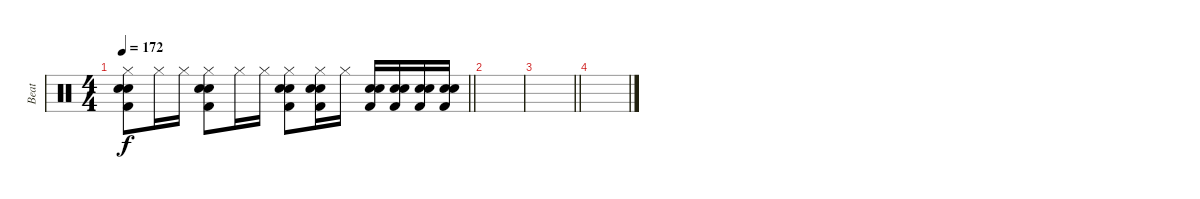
\track ("Beat" "Beat") {instrument percussion}
\staff {score}
\articulation defaults
\ts (4 4)
\tempo 172
\clef neutral
\barLineRight lightlight
\ks c
("Kick (hit) 2" "Hi-Hat (closed)" "Snare (hit) 2" "Hand Clap (hit)").8{dy f} "Hi-Hat (closed)".16 "Hi-Hat (closed)".16 ("Kick (hit) 2" "Hi-Hat (closed)" "Snare (hit) 2" "Hand Clap (hit)").8 "Hi-Hat (closed)".16 "Hi-Hat (closed)".16 ("Kick (hit) 2" "Hi-Hat (closed)" "Snare (hit) 2" "Hand Clap (hit)").8 ("Kick (hit) 2" "Hi-Hat (closed)" "Snare (hit) 2" "Hand Clap (hit)").16 "Hi-Hat (closed)".16 ("Kick (hit) 2" "Snare (hit) 2" "Hand Clap (hit)").16 ("Kick (hit) 2" "Snare (hit) 2" "Hand Clap (hit)").16 ("Kick (hit) 2" "Snare (hit) 2" "Hand Clap (hit)").16 ("Kick (hit) 2" "Snare (hit) 2" "Hand Clap (hit)").16 |
\section ("" " ")
|
\barLineRight lightlight
|
\section ("" " ")
